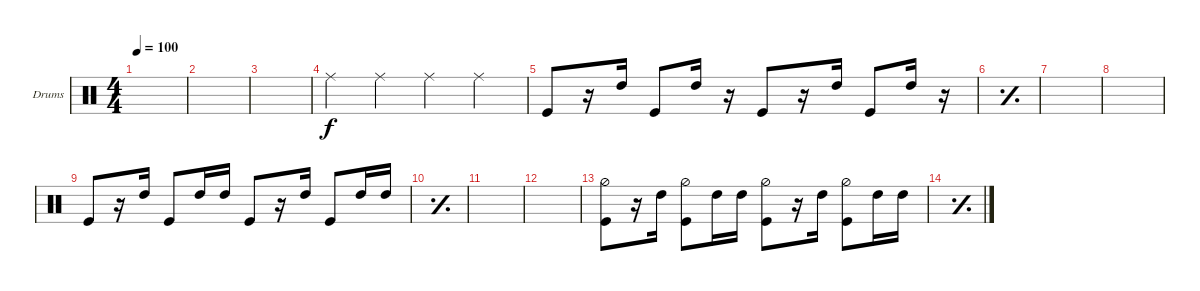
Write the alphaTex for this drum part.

\bracketExtendMode groupsimilarinstruments
\firstSystemTrackNameOrientation horizontal
\otherSystemsTrackNameOrientation horizontal
\track ("Drumkit" "Drums") {instrument percussion}
\staff {score}
\articulation defaults
\ts (4 4)
\tempo 100
\clef neutral
\ks c
|
\scale
0.472222 |
|
"Ride (middle)".4 "Ride (middle)".4 "Ride (middle)".4 "Ride (middle)".4 |
\scale
0.333333 "Kick (hit)".8 r.16 "High Tom (hit)".16 "Kick (hit)".8 "High Tom (hit)".16 r.16 "Kick (hit)".8 r.16 "High Tom (hit)".16 "Kick (hit)".8 "High Tom (hit)".16 r.16 |
\simile simple
\scale
0.333333 |
\simile none
\scale
0.333333 |
|
\scale
0.333333 "Kick (hit)".8 r.16 "High Tom (hit)".16 "Kick (hit)".8 "High Tom (hit)".16 "High Tom (hit)".16 "Kick (hit)".8 r.16 "High Tom (hit)".16 "Kick (hit)".8 "High Tom (hit)".16 "High Tom (hit)".16 |
\simile simple
\scale
0.333333 |
\simile none
\scale
0.333333 |
|
\scale
0.333333 ("Kick (hit)" "Hi-Hat (half)").8 r.16 "High Tom (hit)".16 ("Kick (hit)" "Hi-Hat (half)").8 "High Tom (hit)".16 "High Tom (hit)".16 ("Kick (hit)" "Hi-Hat (half)").8 r.16 "High Tom (hit)".16 ("Kick (hit)" "Hi-Hat (half)").8 "High Tom (hit)".16 "High Tom (hit)".16 |
\simile simple
\scale
0.333333 |
\simile none
|
\scale
0.333333
